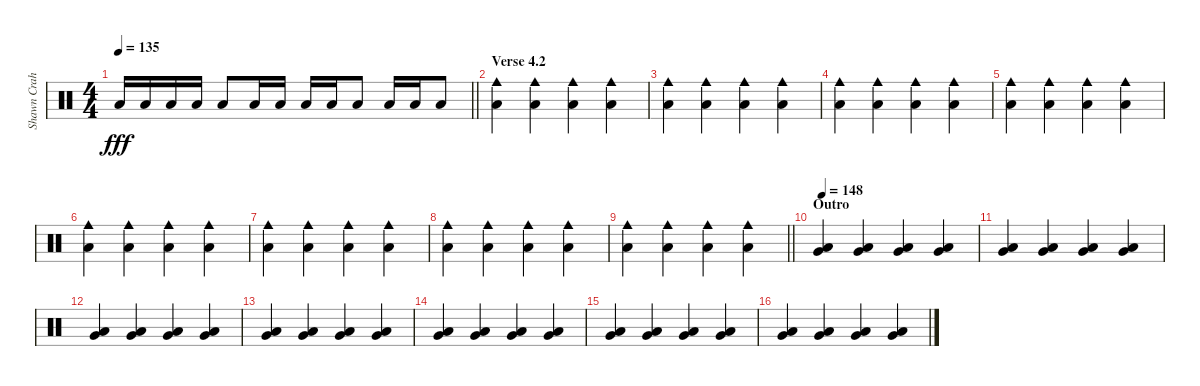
\track ("Shawn Crahan" "Shawn Crah") {instrument percussion}
\staff {score}
\articulation defaults
\ts (4 4)
\tempo 135
\clef neutral
\barLineRight lightlight
\ks c "Low Floor Tom (hit)".16{dy fff} "Low Floor Tom (hit)".16 "Low Floor Tom (hit)".16 "Low Floor Tom (hit)".16 "Low Floor Tom (hit)".8 "Low Floor Tom (hit)".16 "Low Floor Tom (hit)".16 "Low Floor Tom (hit)".16 "Low Floor Tom (hit)".16 "Low Floor Tom (hit)".8 "Low Floor Tom (hit)".16 "Low Floor Tom (hit)".16 "Low Floor Tom (hit)".8
|
\section ("" "Verse 4.2")
("Cowbell medium (hit)" "Low Floor Tom (hit)").4 ("Cowbell medium (hit)" "Low Floor Tom (hit)").4 ("Cowbell medium (hit)" "Low Floor Tom (hit)").4 ("Cowbell medium (hit)" "Low Floor Tom (hit)").4 |
("Cowbell medium (hit)" "Low Floor Tom (hit)").4 ("Cowbell medium (hit)" "Low Floor Tom (hit)").4 ("Cowbell medium (hit)" "Low Floor Tom (hit)").4 ("Cowbell medium (hit)" "Low Floor Tom (hit)").4 |
("Cowbell medium (hit)" "Low Floor Tom (hit)").4 ("Cowbell medium (hit)" "Low Floor Tom (hit)").4 ("Cowbell medium (hit)" "Low Floor Tom (hit)").4 ("Cowbell medium (hit)" "Low Floor Tom (hit)").4 |
("Cowbell medium (hit)" "Low Floor Tom (hit)").4 ("Cowbell medium (hit)" "Low Floor Tom (hit)").4 ("Cowbell medium (hit)" "Low Floor Tom (hit)").4 ("Cowbell medium (hit)" "Low Floor Tom (hit)").4 |
("Cowbell medium (hit)" "Low Floor Tom (hit)").4 ("Cowbell medium (hit)" "Low Floor Tom (hit)").4 ("Cowbell medium (hit)" "Low Floor Tom (hit)").4 ("Cowbell medium (hit)" "Low Floor Tom (hit)").4 |
("Cowbell medium (hit)" "Low Floor Tom (hit)").4 ("Cowbell medium (hit)" "Low Floor Tom (hit)").4 ("Cowbell medium (hit)" "Low Floor Tom (hit)").4 ("Cowbell medium (hit)" "Low Floor Tom (hit)").4 |
("Cowbell medium (hit)" "Low Floor Tom (hit)").4 ("Cowbell medium (hit)" "Low Floor Tom (hit)").4 ("Cowbell medium (hit)" "Low Floor Tom (hit)").4 ("Cowbell medium (hit)" "Low Floor Tom (hit)").4 |
\barLineRight lightlight
("Cowbell medium (hit)" "Low Floor Tom (hit)").4 ("Cowbell medium (hit)" "Low Floor Tom (hit)").4 ("Cowbell medium (hit)" "Low Floor Tom (hit)").4 ("Cowbell medium (hit)" "Low Floor Tom (hit)").4 |
\section ("" "Outro")
\tempo 148
("Very Low Tom (hit)" "Low Floor Tom (hit)").4 ("Very Low Tom (hit)" "Low Floor Tom (hit)").4 ("Very Low Tom (hit)" "Low Floor Tom (hit)").4 ("Very Low Tom (hit)" "Low Floor Tom (hit)").4 |
("Very Low Tom (hit)" "Low Floor Tom (hit)").4 ("Very Low Tom (hit)" "Low Floor Tom (hit)").4 ("Very Low Tom (hit)" "Low Floor Tom (hit)").4 ("Very Low Tom (hit)" "Low Floor Tom (hit)").4 |
("Very Low Tom (hit)" "Low Floor Tom (hit)").4 ("Very Low Tom (hit)" "Low Floor Tom (hit)").4 ("Very Low Tom (hit)" "Low Floor Tom (hit)").4 ("Very Low Tom (hit)" "Low Floor Tom (hit)").4 |
("Very Low Tom (hit)" "Low Floor Tom (hit)").4 ("Very Low Tom (hit)" "Low Floor Tom (hit)").4 ("Very Low Tom (hit)" "Low Floor Tom (hit)").4 ("Very Low Tom (hit)" "Low Floor Tom (hit)").4 |
("Very Low Tom (hit)" "Low Floor Tom (hit)").4 ("Very Low Tom (hit)" "Low Floor Tom (hit)").4 ("Very Low Tom (hit)" "Low Floor Tom (hit)").4 ("Very Low Tom (hit)" "Low Floor Tom (hit)").4 |
("Very Low Tom (hit)" "Low Floor Tom (hit)").4 ("Very Low Tom (hit)" "Low Floor Tom (hit)").4 ("Very Low Tom (hit)" "Low Floor Tom (hit)").4 ("Very Low Tom (hit)" "Low Floor Tom (hit)").4 |
("Very Low Tom (hit)" "Low Floor Tom (hit)").4 ("Very Low Tom (hit)" "Low Floor Tom (hit)").4 ("Very Low Tom (hit)" "Low Floor Tom (hit)").4 ("Very Low Tom (hit)" "Low Floor Tom (hit)").4
